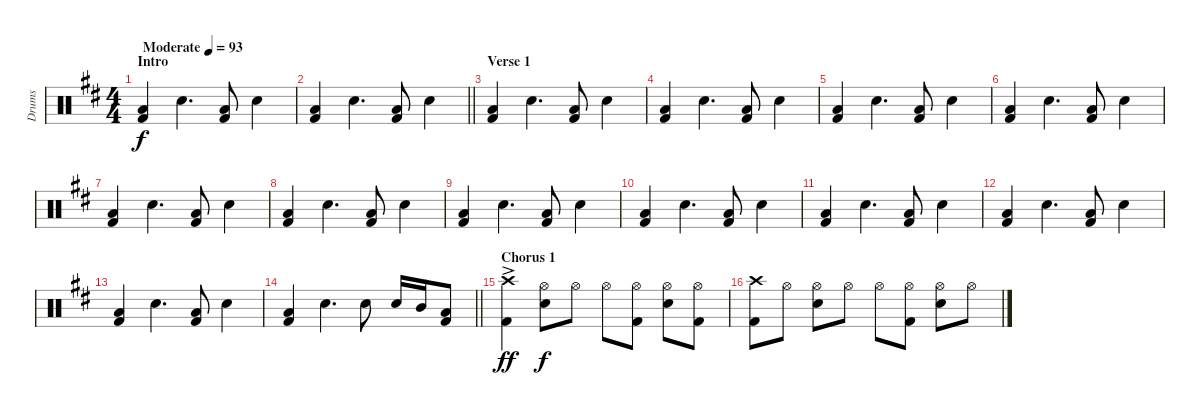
\track ("Drums" "Drums") {instrument percussion}
\staff {score}
\articulation defaults
\ts (4 4)
\section ("" "Intro")
\tempo (93 "Moderate")
\clef neutral
\ks d
("Low Tom (hit)" "Kick (hit) 2").4{dy f} "Hand Clap (hit)".4{d} ("Low Tom (hit)" "Kick (hit) 2").8 "Hand Clap (hit)".4 |
\barLineRight lightlight
("Low Tom (hit)" "Kick (hit) 2").4 "Hand Clap (hit)".4{d} ("Low Tom (hit)" "Kick (hit) 2").8 "Hand Clap (hit)".4 |
\section ("" "Verse 1")
("Low Tom (hit)" "Kick (hit) 2").4 "Hand Clap (hit)".4{d} ("Low Tom (hit)" "Kick (hit) 2").8 "Hand Clap (hit)".4 |
("Low Tom (hit)" "Kick (hit) 2").4 "Hand Clap (hit)".4{d} ("Low Tom (hit)" "Kick (hit) 2").8 "Hand Clap (hit)".4 |
("Low Tom (hit)" "Kick (hit) 2").4 "Hand Clap (hit)".4{d} ("Low Tom (hit)" "Kick (hit) 2").8 "Hand Clap (hit)".4 |
("Low Tom (hit)" "Kick (hit) 2").4 "Hand Clap (hit)".4{d} ("Low Tom (hit)" "Kick (hit) 2").8 "Hand Clap (hit)".4 |
("Low Tom (hit)" "Kick (hit) 2").4 "Hand Clap (hit)".4{d} ("Low Tom (hit)" "Kick (hit) 2").8 "Hand Clap (hit)".4 |
("Low Tom (hit)" "Kick (hit) 2").4 "Hand Clap (hit)".4{d} ("Low Tom (hit)" "Kick (hit) 2").8 "Hand Clap (hit)".4 |
("Low Tom (hit)" "Kick (hit) 2").4 "Hand Clap (hit)".4{d} ("Low Tom (hit)" "Kick (hit) 2").8 "Hand Clap (hit)".4 |
("Low Tom (hit)" "Kick (hit) 2").4 "Hand Clap (hit)".4{d} ("Low Tom (hit)" "Kick (hit) 2").8 "Hand Clap (hit)".4 |
("Low Tom (hit)" "Kick (hit) 2").4 "Hand Clap (hit)".4{d} ("Low Tom (hit)" "Kick (hit) 2").8 "Hand Clap (hit)".4 |
("Low Tom (hit)" "Kick (hit) 2").4 "Hand Clap (hit)".4{d} ("Low Tom (hit)" "Kick (hit) 2").8 "Hand Clap (hit)".4 |
("Low Tom (hit)" "Kick (hit) 2").4 "Hand Clap (hit)".4{d} ("Low Tom (hit)" "Kick (hit) 2").8 "Hand Clap (hit)".4 |
\barLineRight lightlight
("Low Tom (hit)" "Kick (hit) 2").4 "Hand Clap (hit)".4{d} "Electric Snare (hit)".8 "Electric Snare (hit)".16 "Mid Tom (hit)".16 ("Low Tom (hit)" "Kick (hit) 2").8 |
\section ("" "Chorus 1")
("Crash high (hit)"{ac} "Kick (hit) 2").4{dy ff} ("Hi-Hat (open)" "Electric Snare (hit)").8{dy f} "Hi-Hat (open)".8 "Hi-Hat (open)".8 ("Hi-Hat (open)" "Kick (hit) 2").8 ("Hi-Hat (open)" "Electric Snare (hit)").8 ("Hi-Hat (open)" "Kick (hit) 2").8 |
("Crash high (hit)" "Kick (hit) 2").8 "Hi-Hat (open)".8 ("Hi-Hat (open)" "Electric Snare (hit)").8 "Hi-Hat (open)".8 "Hi-Hat (open)".8 ("Hi-Hat (open)" "Kick (hit) 2").8 ("Hi-Hat (open)" "Electric Snare (hit)").8 "Hi-Hat (open)".8
